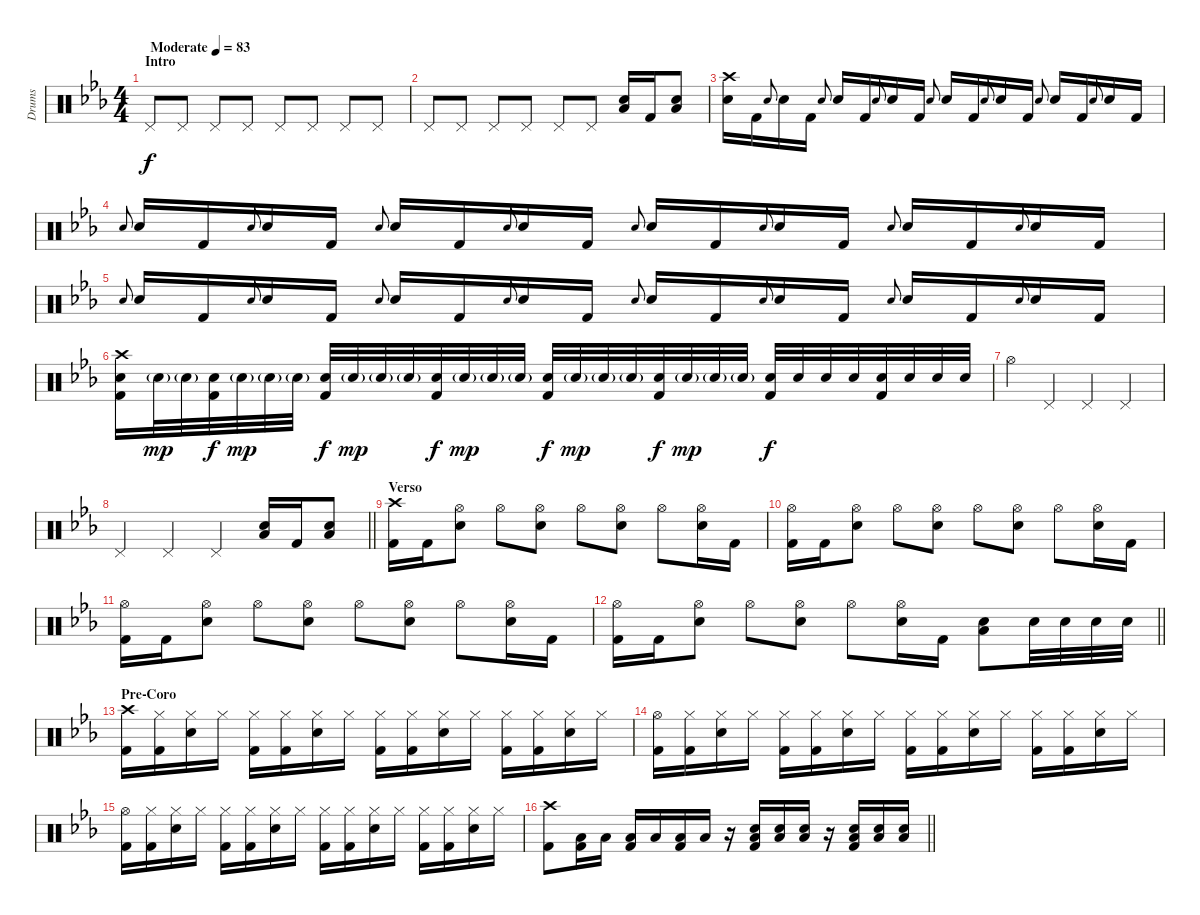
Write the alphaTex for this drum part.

\track ("Drums" "Drums") {instrument percussion}
\staff {score}
\articulation defaults
\ts (4 4)
\section ("" "Intro")
\tempo (83 "Moderate")
\clef neutral
\ks eb "Pedal Hi-Hat (hit)".8{dy f} "Pedal Hi-Hat (hit)".8 "Pedal Hi-Hat (hit)".8 "Pedal Hi-Hat (hit)".8 "Pedal Hi-Hat (hit)".8 "Pedal Hi-Hat (hit)".8 "Pedal Hi-Hat (hit)".8 "Pedal Hi-Hat (hit)".8
|
"Pedal Hi-Hat (hit)".8 "Pedal Hi-Hat (hit)".8 "Pedal Hi-Hat (hit)".8 "Pedal Hi-Hat (hit)".8 "Pedal Hi-Hat (hit)".8 "Pedal Hi-Hat (hit)".8 ("Low Floor Tom (hit)" "Snare (hit) 2").16 "Kick (hit) 2".16 ("Low Floor Tom (hit)" "Snare (hit) 2").8 |
("Crash high (hit)" "Snare (hit) 2").16 "Kick (hit) 2".16 "Snare (hit) 2".8{gr onbeat} "Snare (hit) 2".16 "Kick (hit) 2".16 "Snare (hit) 2".8{gr onbeat} "Snare (hit) 2".16 "Kick (hit) 2".16 "Snare (hit) 2".8{gr onbeat} "Snare (hit) 2".16 "Kick (hit) 2".16 "Snare (hit) 2".8{gr onbeat} "Snare (hit) 2".16 "Kick (hit) 2".16 "Snare (hit) 2".8{gr onbeat} "Snare (hit) 2".16 "Kick (hit) 2".16 "Snare (hit) 2".8{gr onbeat} "Snare (hit) 2".16 "Kick (hit) 2".16 "Snare (hit) 2".8{gr onbeat} "Snare (hit) 2".16 "Kick (hit) 2".16 |
"Snare (hit) 2".8{gr onbeat} "Snare (hit) 2".16 "Kick (hit) 2".16 "Snare (hit) 2".8{gr onbeat} "Snare (hit) 2".16 "Kick (hit) 2".16 "Snare (hit) 2".8{gr onbeat} "Snare (hit) 2".16 "Kick (hit) 2".16 "Snare (hit) 2".8{gr onbeat} "Snare (hit) 2".16 "Kick (hit) 2".16 "Snare (hit) 2".8{gr onbeat} "Snare (hit) 2".16 "Kick (hit) 2".16 "Snare (hit) 2".8{gr onbeat} "Snare (hit) 2".16 "Kick (hit) 2".16 "Snare (hit) 2".8{gr onbeat} "Snare (hit) 2".16 "Kick (hit) 2".16 "Snare (hit) 2".8{gr onbeat} "Snare (hit) 2".16 "Kick (hit) 2".16 |
"Snare (hit) 2".8{gr onbeat} "Snare (hit) 2".16 "Kick (hit) 2".16 "Snare (hit) 2".8{gr onbeat} "Snare (hit) 2".16 "Kick (hit) 2".16 "Snare (hit) 2".8{gr onbeat} "Snare (hit) 2".16 "Kick (hit) 2".16 "Snare (hit) 2".8{gr onbeat} "Snare (hit) 2".16 "Kick (hit) 2".16 "Snare (hit) 2".8{gr onbeat} "Snare (hit) 2".16 "Kick (hit) 2".16 "Snare (hit) 2".8{gr onbeat} "Snare (hit) 2".16 "Kick (hit) 2".16 "Snare (hit) 2".8{gr onbeat} "Snare (hit) 2".16 "Kick (hit) 2".16 "Snare (hit) 2".8{gr onbeat} "Snare (hit) 2".16 "Kick (hit) 2".16 |
("Crash high (hit)" "Snare (hit) 2" "Kick (hit) 2").16 "Snare (hit) 2"{g}.32{dy mp} "Snare (hit) 2"{g}.32 ("Snare (hit) 2" "Kick (hit) 2").32{dy f} "Snare (hit) 2"{g}.32{dy mp} "Snare (hit) 2"{g}.32 "Snare (hit) 2"{g}.32 ("Snare (hit) 2" "Kick (hit) 2").32{dy f} "Snare (hit) 2"{g}.32{dy mp} "Snare (hit) 2"{g}.32 "Snare (hit) 2"{g}.32 ("Snare (hit) 2" "Kick (hit) 2").32{dy f} "Snare (hit) 2"{g}.32{dy mp} "Snare (hit) 2"{g}.32 "Snare (hit) 2"{g}.32 ("Snare (hit) 2" "Kick (hit) 2").32{dy f} "Snare (hit) 2"{g}.32{dy mp} "Snare (hit) 2"{g}.32 "Snare (hit) 2"{g}.32 ("Snare (hit) 2" "Kick (hit) 2").32{dy f} "Snare (hit) 2"{g}.32{dy mp} "Snare (hit) 2"{g}.32 "Snare (hit) 2"{g}.32 ("Snare (hit) 2" "Kick (hit) 2").32{dy f} "Snare (hit) 2".32 "Snare (hit) 2".32 "Snare (hit) 2".32 ("Snare (hit) 2" "Kick (hit) 2").32 "Snare (hit) 2".32 "Snare (hit) 2".32 "Snare (hit) 2".32 |
"Hi-Hat (open)".4 "Pedal Hi-Hat (hit)".4 "Pedal Hi-Hat (hit)".4 "Pedal Hi-Hat (hit)".4 |
\barLineRight lightlight "Pedal Hi-Hat (hit)".4 "Pedal Hi-Hat (hit)".4 "Pedal Hi-Hat (hit)".4
("Low Floor Tom (hit)" "Snare (hit) 2").16 "Kick (hit) 2".16 ("Low Floor Tom (hit)" "Snare (hit) 2").8 |
\section ("" "Verso")
("Crash high (hit)" "Kick (hit) 2").16 "Kick (hit) 2".16 ("Hi-Hat (open)" "Snare (hit) 2").8 "Hi-Hat (open)".8 ("Hi-Hat (open)" "Snare (hit) 2").8 "Hi-Hat (open)".8 ("Hi-Hat (open)" "Snare (hit) 2").8 "Hi-Hat (open)".8 ("Hi-Hat (open)" "Snare (hit) 2").16 "Kick (hit) 2".16 |
("Hi-Hat (open)" "Kick (hit) 2").16 "Kick (hit) 2".16 ("Hi-Hat (open)" "Snare (hit) 2").8 "Hi-Hat (open)".8 ("Hi-Hat (open)" "Snare (hit) 2").8 "Hi-Hat (open)".8 ("Hi-Hat (open)" "Snare (hit) 2").8 "Hi-Hat (open)".8 ("Hi-Hat (open)" "Snare (hit) 2").16 "Kick (hit) 2".16 |
("Hi-Hat (open)" "Kick (hit) 2").16 "Kick (hit) 2".16 ("Hi-Hat (open)" "Snare (hit) 2").8 "Hi-Hat (open)".8 ("Hi-Hat (open)" "Snare (hit) 2").8 "Hi-Hat (open)".8 ("Hi-Hat (open)" "Snare (hit) 2").8 "Hi-Hat (open)".8 ("Hi-Hat (open)" "Snare (hit) 2").16 "Kick (hit) 2".16 |
\barLineRight lightlight
("Hi-Hat (open)" "Kick (hit) 2").16 "Kick (hit) 2".16 ("Hi-Hat (open)" "Snare (hit) 2").8 "Hi-Hat (open)".8 ("Hi-Hat (open)" "Snare (hit) 2").8 "Hi-Hat (open)".8 ("Hi-Hat (open)" "Snare (hit) 2").16 "Kick (hit) 2".16 ("Low Floor Tom (hit)" "Snare (hit) 2").8 "Snare (hit) 2".32 "Snare (hit) 2".32 "Snare (hit) 2".32 "Snare (hit) 2".32 |
\section ("" "Pre-Coro")
("Crash high (hit)" "Kick (hit) 2").16 ("Hi-Hat (closed)" "Kick (hit) 2").16 ("Hi-Hat (closed)" "Snare (hit) 2").16 "Hi-Hat (closed)".16 ("Hi-Hat (closed)" "Kick (hit) 2").16 ("Hi-Hat (closed)" "Kick (hit) 2").16 ("Hi-Hat (closed)" "Snare (hit) 2").16 "Hi-Hat (closed)".16 ("Hi-Hat (closed)" "Kick (hit) 2").16 ("Hi-Hat (closed)" "Kick (hit) 2").16 ("Hi-Hat (closed)" "Snare (hit) 2").16 "Hi-Hat (closed)".16 ("Hi-Hat (closed)" "Kick (hit) 2").16 ("Hi-Hat (closed)" "Kick (hit) 2").16 ("Hi-Hat (closed)" "Snare (hit) 2").16 "Hi-Hat (closed)".16 |
("Hi-Hat (open)" "Kick (hit) 2").16 ("Hi-Hat (closed)" "Kick (hit) 2").16 ("Hi-Hat (closed)" "Snare (hit) 2").16 "Hi-Hat (closed)".16 ("Hi-Hat (closed)" "Kick (hit) 2").16 ("Hi-Hat (closed)" "Kick (hit) 2").16 ("Hi-Hat (closed)" "Snare (hit) 2").16 "Hi-Hat (closed)".16 ("Hi-Hat (closed)" "Kick (hit) 2").16 ("Hi-Hat (closed)" "Kick (hit) 2").16 ("Hi-Hat (closed)" "Snare (hit) 2").16 "Hi-Hat (closed)".16 ("Hi-Hat (closed)" "Kick (hit) 2").16 ("Hi-Hat (closed)" "Kick (hit) 2").16 ("Hi-Hat (closed)" "Snare (hit) 2").16 "Hi-Hat (closed)".16 |
("Hi-Hat (open)" "Kick (hit) 2").16 ("Hi-Hat (closed)" "Kick (hit) 2").16 ("Hi-Hat (closed)" "Snare (hit) 2").16 "Hi-Hat (closed)".16 ("Hi-Hat (closed)" "Kick (hit) 2").16 ("Hi-Hat (closed)" "Kick (hit) 2").16 ("Hi-Hat (closed)" "Snare (hit) 2").16 "Hi-Hat (closed)".16 ("Hi-Hat (closed)" "Kick (hit) 2").16 ("Hi-Hat (closed)" "Kick (hit) 2").16 ("Hi-Hat (closed)" "Snare (hit) 2").16 "Hi-Hat (closed)".16 ("Hi-Hat (closed)" "Kick (hit) 2").16 ("Hi-Hat (closed)" "Kick (hit) 2").16 ("Hi-Hat (closed)" "Snare (hit) 2").16 "Hi-Hat (closed)".16 |
\barLineRight lightlight
("Crash high (hit)" "Kick (hit) 2").8 ("Low Floor Tom (hit)" "Kick (hit) 2").16 "Low Floor Tom (hit)".16 ("Low Floor Tom (hit)" "Kick (hit) 2").16 "Low Floor Tom (hit)".16 ("Low Floor Tom (hit)" "Kick (hit) 2").16 "Low Floor Tom (hit)".16 r.16 ("Low Floor Tom (hit)" "Snare (hit) 2" "Kick (hit) 2").16 ("Low Floor Tom (hit)" "Snare (hit) 2").16 ("Low Floor Tom (hit)" "Snare (hit) 2").16 r.16 ("Low Floor Tom (hit)" "Snare (hit) 2" "Kick (hit) 2").16 ("Low Floor Tom (hit)" "Snare (hit) 2").16 ("Low Floor Tom (hit)" "Snare (hit) 2").16
